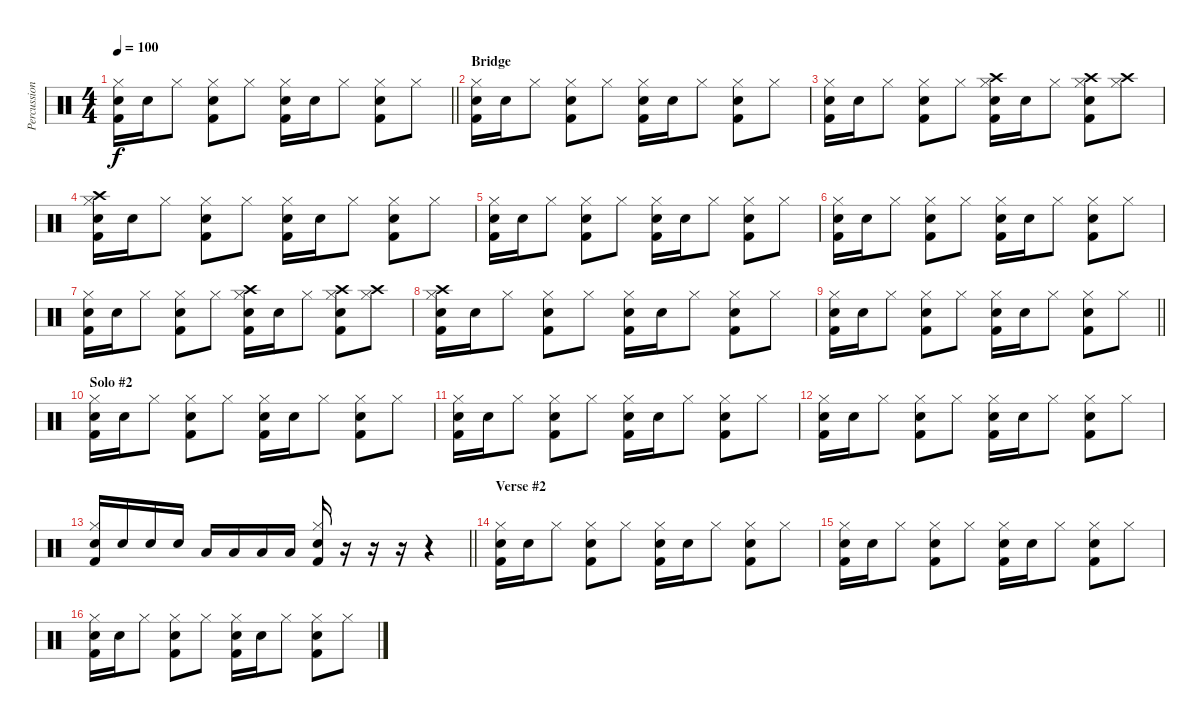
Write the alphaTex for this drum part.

\track ("Percussion" "Percussion") {instrument percussion}
\staff {score}
\articulation defaults
\ts (4 4)
\tempo 100
\clef neutral
\barLineRight lightlight
\ks c
("Snare (hit) 2" "Hi-Hat (closed)" "Kick (hit) 2").16{dy f} "Snare (hit) 2".16 "Hi-Hat (closed)".8 ("Snare (hit) 2" "Hi-Hat (closed)" "Kick (hit) 2").8 "Hi-Hat (closed)".8 ("Snare (hit) 2" "Hi-Hat (closed)" "Kick (hit) 2").16 "Snare (hit) 2".16 "Hi-Hat (closed)".8 ("Snare (hit) 2" "Hi-Hat (closed)" "Kick (hit) 2").8 "Hi-Hat (closed)".8 |
\section ("" "Bridge")
("Snare (hit) 2" "Hi-Hat (closed)" "Kick (hit) 2").16 "Snare (hit) 2".16 "Hi-Hat (closed)".8 ("Snare (hit) 2" "Hi-Hat (closed)" "Kick (hit) 2").8 "Hi-Hat (closed)".8 ("Snare (hit) 2" "Hi-Hat (closed)" "Kick (hit) 2").16 "Snare (hit) 2".16 "Hi-Hat (closed)".8 ("Snare (hit) 2" "Hi-Hat (closed)" "Kick (hit) 2").8 "Hi-Hat (closed)".8 |
("Snare (hit) 2" "Hi-Hat (closed)" "Kick (hit) 2").16 "Snare (hit) 2".16 "Hi-Hat (closed)".8 ("Snare (hit) 2" "Hi-Hat (closed)" "Kick (hit) 2").8 "Hi-Hat (closed)".8 ("Snare (hit) 2" "Crash high (hit)" "Hi-Hat (closed)" "Kick (hit) 2").16 "Snare (hit) 2".16 "Hi-Hat (closed)".8 ("Snare (hit) 2" "Crash high (hit)" "Hi-Hat (closed)" "Kick (hit) 2").8 ("Crash high (hit)" "Hi-Hat (closed)").8 |
("Snare (hit) 2" "Crash high (hit)" "Hi-Hat (closed)" "Kick (hit) 2").16 "Snare (hit) 2".16 "Hi-Hat (closed)".8 ("Snare (hit) 2" "Hi-Hat (closed)" "Kick (hit) 2").8 "Hi-Hat (closed)".8 ("Snare (hit) 2" "Hi-Hat (closed)" "Kick (hit) 2").16 "Snare (hit) 2".16 "Hi-Hat (closed)".8 ("Snare (hit) 2" "Hi-Hat (closed)" "Kick (hit) 2").8 "Hi-Hat (closed)".8 |
("Snare (hit) 2" "Hi-Hat (closed)" "Kick (hit) 2").16 "Snare (hit) 2".16 "Hi-Hat (closed)".8 ("Snare (hit) 2" "Hi-Hat (closed)" "Kick (hit) 2").8 "Hi-Hat (closed)".8 ("Snare (hit) 2" "Hi-Hat (closed)" "Kick (hit) 2").16 "Snare (hit) 2".16 "Hi-Hat (closed)".8 ("Snare (hit) 2" "Hi-Hat (closed)" "Kick (hit) 2").8 "Hi-Hat (closed)".8 |
("Snare (hit) 2" "Hi-Hat (closed)" "Kick (hit) 2").16 "Snare (hit) 2".16 "Hi-Hat (closed)".8 ("Snare (hit) 2" "Hi-Hat (closed)" "Kick (hit) 2").8 "Hi-Hat (closed)".8 ("Snare (hit) 2" "Hi-Hat (closed)" "Kick (hit) 2").16 "Snare (hit) 2".16 "Hi-Hat (closed)".8 ("Snare (hit) 2" "Hi-Hat (closed)" "Kick (hit) 2").8 "Hi-Hat (closed)".8 |
("Snare (hit) 2" "Hi-Hat (closed)" "Kick (hit) 2").16 "Snare (hit) 2".16 "Hi-Hat (closed)".8 ("Snare (hit) 2" "Hi-Hat (closed)" "Kick (hit) 2").8 "Hi-Hat (closed)".8 ("Snare (hit) 2" "Crash high (hit)" "Hi-Hat (closed)" "Kick (hit) 2").16 "Snare (hit) 2".16 "Hi-Hat (closed)".8 ("Snare (hit) 2" "Crash high (hit)" "Hi-Hat (closed)" "Kick (hit) 2").8 ("Crash high (hit)" "Hi-Hat (closed)").8 |
("Snare (hit) 2" "Crash high (hit)" "Hi-Hat (closed)" "Kick (hit) 2").16 "Snare (hit) 2".16 "Hi-Hat (closed)".8 ("Snare (hit) 2" "Hi-Hat (closed)" "Kick (hit) 2").8 "Hi-Hat (closed)".8 ("Snare (hit) 2" "Hi-Hat (closed)" "Kick (hit) 2").16 "Snare (hit) 2".16 "Hi-Hat (closed)".8 ("Snare (hit) 2" "Hi-Hat (closed)" "Kick (hit) 2").8 "Hi-Hat (closed)".8 |
\barLineRight lightlight
("Snare (hit) 2" "Hi-Hat (closed)" "Kick (hit) 2").16 "Snare (hit) 2".16 "Hi-Hat (closed)".8 ("Snare (hit) 2" "Hi-Hat (closed)" "Kick (hit) 2").8 "Hi-Hat (closed)".8 ("Snare (hit) 2" "Hi-Hat (closed)" "Kick (hit) 2").16 "Snare (hit) 2".16 "Hi-Hat (closed)".8 ("Snare (hit) 2" "Hi-Hat (closed)" "Kick (hit) 2").8 "Hi-Hat (closed)".8 |
\section ("" "Solo #2")
("Snare (hit) 2" "Hi-Hat (closed)" "Kick (hit) 2").16 "Snare (hit) 2".16 "Hi-Hat (closed)".8 ("Snare (hit) 2" "Hi-Hat (closed)" "Kick (hit) 2").8 "Hi-Hat (closed)".8 ("Snare (hit) 2" "Hi-Hat (closed)" "Kick (hit) 2").16 "Snare (hit) 2".16 "Hi-Hat (closed)".8 ("Snare (hit) 2" "Hi-Hat (closed)" "Kick (hit) 2").8 "Hi-Hat (closed)".8 |
("Snare (hit) 2" "Hi-Hat (closed)" "Kick (hit) 2").16 "Snare (hit) 2".16 "Hi-Hat (closed)".8 ("Snare (hit) 2" "Hi-Hat (closed)" "Kick (hit) 2").8 "Hi-Hat (closed)".8 ("Snare (hit) 2" "Hi-Hat (closed)" "Kick (hit) 2").16 "Snare (hit) 2".16 "Hi-Hat (closed)".8 ("Snare (hit) 2" "Hi-Hat (closed)" "Kick (hit) 2").8 "Hi-Hat (closed)".8 |
("Snare (hit) 2" "Hi-Hat (closed)" "Kick (hit) 2").16 "Snare (hit) 2".16 "Hi-Hat (closed)".8 ("Snare (hit) 2" "Hi-Hat (closed)" "Kick (hit) 2").8 "Hi-Hat (closed)".8 ("Snare (hit) 2" "Hi-Hat (closed)" "Kick (hit) 2").16 "Snare (hit) 2".16 "Hi-Hat (closed)".8 ("Snare (hit) 2" "Hi-Hat (closed)" "Kick (hit) 2").8 "Hi-Hat (closed)".8 |
\barLineRight lightlight
("Snare (hit) 2" "Hi-Hat (closed)" "Kick (hit) 2").16 "Snare (hit) 2".16 "Snare (hit) 2".16 "Snare (hit) 2".16 "Low Tom (hit)".16 "Low Tom (hit)".16 "Low Tom (hit)".16 "Low Tom (hit)".16 ("Snare (hit) 2" "Hi-Hat (closed)" "Kick (hit) 2").16 r.16 r.16 r.16 r.4 |
\section ("" "Verse #2")
("Snare (hit) 2" "Hi-Hat (closed)" "Kick (hit) 2").16 "Snare (hit) 2".16 "Hi-Hat (closed)".8 ("Snare (hit) 2" "Hi-Hat (closed)" "Kick (hit) 2").8 "Hi-Hat (closed)".8 ("Snare (hit) 2" "Hi-Hat (closed)" "Kick (hit) 2").16 "Snare (hit) 2".16 "Hi-Hat (closed)".8 ("Snare (hit) 2" "Hi-Hat (closed)" "Kick (hit) 2").8 "Hi-Hat (closed)".8 |
("Snare (hit) 2" "Hi-Hat (closed)" "Kick (hit) 2").16 "Snare (hit) 2".16 "Hi-Hat (closed)".8 ("Snare (hit) 2" "Hi-Hat (closed)" "Kick (hit) 2").8 "Hi-Hat (closed)".8 ("Snare (hit) 2" "Hi-Hat (closed)" "Kick (hit) 2").16 "Snare (hit) 2".16 "Hi-Hat (closed)".8 ("Snare (hit) 2" "Hi-Hat (closed)" "Kick (hit) 2").8 "Hi-Hat (closed)".8 |
("Snare (hit) 2" "Hi-Hat (closed)" "Kick (hit) 2").16 "Snare (hit) 2".16 "Hi-Hat (closed)".8 ("Snare (hit) 2" "Hi-Hat (closed)" "Kick (hit) 2").8 "Hi-Hat (closed)".8 ("Snare (hit) 2" "Hi-Hat (closed)" "Kick (hit) 2").16 "Snare (hit) 2".16 "Hi-Hat (closed)".8 ("Snare (hit) 2" "Hi-Hat (closed)" "Kick (hit) 2").8 "Hi-Hat (closed)".8
